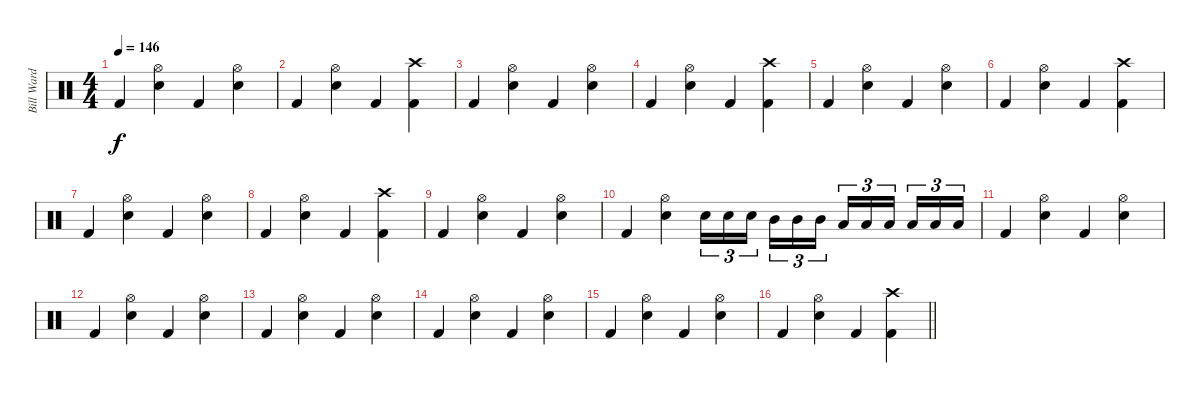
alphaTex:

\track ("Bill Ward" "Bill Ward") {instrument percussion}
\staff {score}
\articulation defaults
\ts (4 4)
\tempo 146
\clef neutral
\ks c "Kick (hit) 2".4{dy f}
("Hi-Hat (open)" "Snare (hit) 2").4 "Kick (hit) 2".4 ("Hi-Hat (open)" "Snare (hit) 2").4 |
"Kick (hit) 2".4 ("Hi-Hat (open)" "Snare (hit) 2").4 "Kick (hit) 2".4 ("Crash high (hit)" "Kick (hit) 2").4 |
"Kick (hit) 2".4 ("Hi-Hat (open)" "Snare (hit) 2").4 "Kick (hit) 2".4 ("Hi-Hat (open)" "Snare (hit) 2").4 |
"Kick (hit) 2".4 ("Hi-Hat (open)" "Snare (hit) 2").4 "Kick (hit) 2".4 ("Crash high (hit)" "Kick (hit) 2").4 |
"Kick (hit) 2".4 ("Hi-Hat (open)" "Snare (hit) 2").4 "Kick (hit) 2".4 ("Hi-Hat (open)" "Snare (hit) 2").4 |
"Kick (hit) 2".4 ("Hi-Hat (open)" "Snare (hit) 2").4 "Kick (hit) 2".4 ("Crash high (hit)" "Kick (hit) 2").4 |
"Kick (hit) 2".4 ("Hi-Hat (open)" "Snare (hit) 2").4 "Kick (hit) 2".4 ("Hi-Hat (open)" "Snare (hit) 2").4 |
"Kick (hit) 2".4 ("Hi-Hat (open)" "Snare (hit) 2").4 "Kick (hit) 2".4 ("Crash high (hit)" "Kick (hit) 2").4 |
"Kick (hit) 2".4 ("Hi-Hat (open)" "Snare (hit) 2").4 "Kick (hit) 2".4 ("Hi-Hat (open)" "Snare (hit) 2").4 |
"Kick (hit) 2".4 ("Hi-Hat (open)" "Snare (hit) 2").4 "Snare (hit) 2".16{tu (3 2)} "Snare (hit) 2".16{tu (3 2)} "Snare (hit) 2".16{tu (3 2)} "Mid Tom (hit)".16{tu (3 2)} "Mid Tom (hit)".16{tu (3 2)} "Mid Tom (hit)".16{tu (3 2)} "Low Tom (hit)".16{tu (3 2)} "Low Tom (hit)".16{tu (3 2)} "Low Tom (hit)".16{tu (3 2)} "Low Floor Tom (hit)".16{tu (3 2)} "Low Floor Tom (hit)".16{tu (3 2)} "Low Floor Tom (hit)".16{tu (3 2)} |
"Kick (hit) 2".4 ("Hi-Hat (open)" "Snare (hit) 2").4 "Kick (hit) 2".4 ("Hi-Hat (open)" "Snare (hit) 2").4 |
"Kick (hit) 2".4 ("Hi-Hat (open)" "Snare (hit) 2").4 "Kick (hit) 2".4 ("Hi-Hat (open)" "Snare (hit) 2").4 |
"Kick (hit) 2".4 ("Hi-Hat (open)" "Snare (hit) 2").4 "Kick (hit) 2".4 ("Hi-Hat (open)" "Snare (hit) 2").4 |
"Kick (hit) 2".4 ("Hi-Hat (open)" "Snare (hit) 2").4 "Kick (hit) 2".4 ("Hi-Hat (open)" "Snare (hit) 2").4 |
"Kick (hit) 2".4 ("Hi-Hat (open)" "Snare (hit) 2").4 "Kick (hit) 2".4 ("Hi-Hat (open)" "Snare (hit) 2").4 |
\barLineRight lightlight "Kick (hit) 2".4
("Hi-Hat (open)" "Snare (hit) 2").4 "Kick (hit) 2".4 ("Crash high (hit)" "Kick (hit) 2").4
